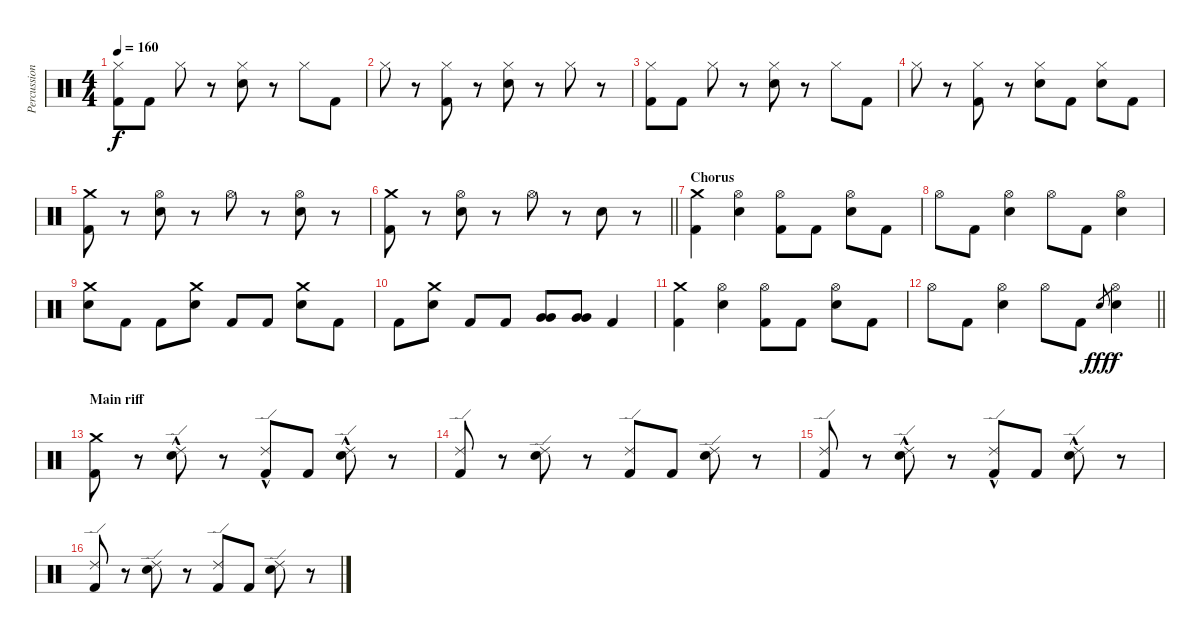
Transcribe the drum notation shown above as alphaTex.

\track ("Percussion" "Percussion") {instrument percussion}
\staff {score}
\articulation defaults
\ts (4 4)
\tempo 160
\clef neutral
\ks c
("Hi-Hat (closed)" "Kick (hit) 2").8{dy f} "Kick (hit) 2".8 "Hi-Hat (closed)".8 r.8 ("Hi-Hat (closed)" "Electric Snare (hit)").8 r.8 "Hi-Hat (closed)".8 "Kick (hit) 2".8 |
"Hi-Hat (closed)".8 r.8 ("Hi-Hat (closed)" "Kick (hit) 2").8 r.8 ("Hi-Hat (closed)" "Electric Snare (hit)").8 r.8 "Hi-Hat (closed)".8 r.8 |
("Hi-Hat (closed)" "Kick (hit) 2").8 "Kick (hit) 2".8 "Hi-Hat (closed)".8 r.8 ("Hi-Hat (closed)" "Electric Snare (hit)").8 r.8 "Hi-Hat (closed)".8 "Kick (hit) 2".8 |
"Hi-Hat (closed)".8 r.8 ("Hi-Hat (closed)" "Kick (hit) 2").8 r.8 ("Hi-Hat (closed)" "Electric Snare (hit)").8 "Kick (hit) 2".8 ("Hi-Hat (closed)" "Electric Snare (hit)").8 "Kick (hit) 2".8 |
("Crash medium (hit)" "Kick (hit) 2").8 r.8 ("Hi-Hat (open)" "Electric Snare (hit)").8 r.8 "Hi-Hat (open)".8 r.8 ("Hi-Hat (open)" "Electric Snare (hit)").8 r.8 |
\barLineRight lightlight
("Crash medium (hit)" "Kick (hit) 2").8 r.8 ("Hi-Hat (open)" "Electric Snare (hit)").8 r.8 "Hi-Hat (open)".8 r.8 "Electric Snare (hit)".8 r.8 |
\section ("" "Chorus")
("Crash medium (hit)" "Kick (hit) 2").4 ("Hi-Hat (open)" "Electric Snare (hit)").4 ("Hi-Hat (open)" "Kick (hit) 2").8 "Kick (hit) 2".8 ("Hi-Hat (open)" "Electric Snare (hit)").8 "Kick (hit) 2".8 |
"Hi-Hat (open)".8 "Kick (hit) 2".8 ("Hi-Hat (open)" "Electric Snare (hit)").4 "Hi-Hat (open)".8 "Kick (hit) 2".8 ("Hi-Hat (open)" "Electric Snare (hit)").4 |
("Crash medium (hit)" "Electric Snare (hit)").8 "Kick (hit) 2".8 "Kick (hit) 2".8 ("Crash medium (hit)" "Electric Snare (hit)").8 "Kick (hit) 2".8 "Kick (hit) 2".8 ("Crash medium (hit)" "Electric Snare (hit)").8 "Kick (hit) 2".8 |
"Kick (hit) 2".8 ("Crash medium (hit)" "Electric Snare (hit)").8 "Kick (hit) 2".8 "Kick (hit) 2".8 ("Very Low Tom (hit)" "Very Low Tom (hit)").8 ("Very Low Tom (hit)" "Very Low Tom (hit)").8 "Kick (hit) 2".4 |
("Crash medium (hit)" "Kick (hit) 2").4 ("Hi-Hat (open)" "Electric Snare (hit)").4 ("Hi-Hat (open)" "Kick (hit) 2").8 "Kick (hit) 2".8 ("Hi-Hat (open)" "Electric Snare (hit)").8 "Kick (hit) 2".8 |
\barLineRight lightlight "Hi-Hat (open)".8 "Kick (hit) 2".8
("Hi-Hat (open)" "Electric Snare (hit)").4 "Hi-Hat (open)".8 "Kick (hit) 2".8 "Electric Snare (hit)".8{gr dy fff} ("Hi-Hat (open)" "Electric Snare (hit)").4{dy f} |
\section ("" "Main riff")
("Crash medium (hit)" "Kick (hit) 2").8 r.8 ("Ride (edge) 2"{hac} "Electric Snare (hit)").8 r.8 ("Ride (edge) 2"{hac} "Kick (hit) 2").8 "Kick (hit) 2".8 ("Ride (edge) 2"{hac} "Electric Snare (hit)").8 r.8 |
("Ride (edge) 2" "Kick (hit) 2").8 r.8 ("Ride (edge) 2" "Electric Snare (hit)").8 r.8 ("Ride (edge) 2" "Kick (hit) 2").8 "Kick (hit) 2".8 ("Ride (edge) 2" "Electric Snare (hit)").8 r.8 |
("Ride (edge) 2" "Kick (hit) 2").8 r.8 ("Ride (edge) 2"{hac} "Electric Snare (hit)").8 r.8 ("Ride (edge) 2"{hac} "Kick (hit) 2").8 "Kick (hit) 2".8 ("Ride (edge) 2"{hac} "Electric Snare (hit)").8 r.8 |
("Ride (edge) 2" "Kick (hit) 2").8 r.8 ("Ride (edge) 2" "Electric Snare (hit)").8 r.8 ("Ride (edge) 2" "Kick (hit) 2").8 "Kick (hit) 2".8 ("Ride (edge) 2" "Electric Snare (hit)").8 r.8
